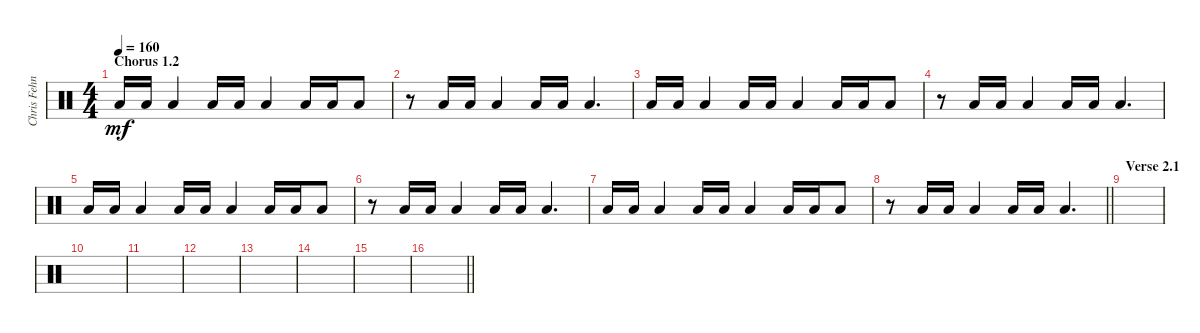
\track ("Chris Fehn" "Chris Fehn") {instrument percussion}
\staff {score}
\articulation defaults
\ts (4 4)
\section ("" "Chorus 1.2")
\tempo 160
\clef neutral
\ks c "Low Floor Tom (hit)".16{dy mf} "Low Floor Tom (hit)".16 "Low Floor Tom (hit)".4 "Low Floor Tom (hit)".16 "Low Floor Tom (hit)".16 "Low Floor Tom (hit)".4 "Low Floor Tom (hit)".16 "Low Floor Tom (hit)".16 "Low Floor Tom (hit)".8
|
r.8 "Low Floor Tom (hit)".16 "Low Floor Tom (hit)".16 "Low Floor Tom (hit)".4 "Low Floor Tom (hit)".16 "Low Floor Tom (hit)".16 "Low Floor Tom (hit)".4{d} |
"Low Floor Tom (hit)".16 "Low Floor Tom (hit)".16 "Low Floor Tom (hit)".4 "Low Floor Tom (hit)".16 "Low Floor Tom (hit)".16 "Low Floor Tom (hit)".4 "Low Floor Tom (hit)".16 "Low Floor Tom (hit)".16 "Low Floor Tom (hit)".8 |
r.8 "Low Floor Tom (hit)".16 "Low Floor Tom (hit)".16 "Low Floor Tom (hit)".4 "Low Floor Tom (hit)".16 "Low Floor Tom (hit)".16 "Low Floor Tom (hit)".4{d} |
"Low Floor Tom (hit)".16 "Low Floor Tom (hit)".16 "Low Floor Tom (hit)".4 "Low Floor Tom (hit)".16 "Low Floor Tom (hit)".16 "Low Floor Tom (hit)".4 "Low Floor Tom (hit)".16 "Low Floor Tom (hit)".16 "Low Floor Tom (hit)".8 |
r.8 "Low Floor Tom (hit)".16 "Low Floor Tom (hit)".16 "Low Floor Tom (hit)".4 "Low Floor Tom (hit)".16 "Low Floor Tom (hit)".16 "Low Floor Tom (hit)".4{d} |
"Low Floor Tom (hit)".16 "Low Floor Tom (hit)".16 "Low Floor Tom (hit)".4 "Low Floor Tom (hit)".16 "Low Floor Tom (hit)".16 "Low Floor Tom (hit)".4 "Low Floor Tom (hit)".16 "Low Floor Tom (hit)".16 "Low Floor Tom (hit)".8 |
\barLineRight lightlight
r.8 "Low Floor Tom (hit)".16 "Low Floor Tom (hit)".16 "Low Floor Tom (hit)".4 "Low Floor Tom (hit)".16 "Low Floor Tom (hit)".16 "Low Floor Tom (hit)".4{d} |
\section ("" "Verse 2.1")
|
|
|
|
|
|
|
\barLineRight lightlight
